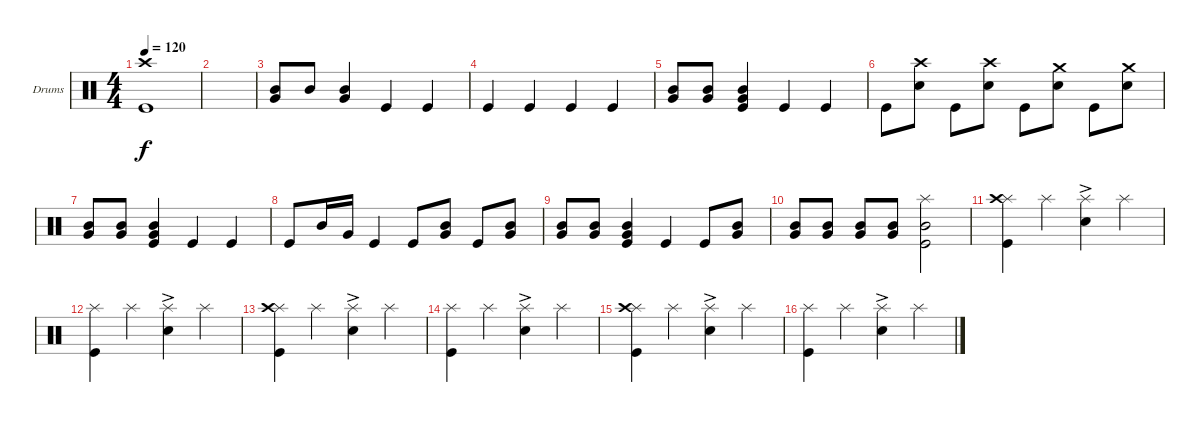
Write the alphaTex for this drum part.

\defaultSystemsLayout 4
\bracketExtendMode groupsimilarinstruments
\firstSystemTrackNameOrientation horizontal
\otherSystemsTrackNameOrientation horizontal
\track ("Drumkit" "Drums") {instrument percussion}
\staff {score}
\articulation defaults
\ts (4 4)
\tempo 120
\clef neutral
\ks c
("Kick (hit)" "Crash high (hit)").1{dy f} |
|
("Very Low Tom (hit)" "Mid Tom (hit)").8 "Mid Tom (hit)".8 ("Very Low Tom (hit)" "Mid Tom (hit)").4 "Kick (hit)".4 "Kick (hit)".4 |
"Kick (hit)".4 "Kick (hit)".4 "Kick (hit)".4 "Kick (hit)".4 |
("Very Low Tom (hit)" "Mid Tom (hit)").8 ("Mid Tom (hit)" "Very Low Tom (hit)").8 ("Very Low Tom (hit)" "Kick (hit)" "Mid Tom (hit)").4 "Kick (hit)".4 "Kick (hit)".4 |
"Kick (hit)".8 ("Snare (hit) 2" "Crash high (hit)").8 "Kick (hit)".8 ("Snare (hit) 2" "Crash high (hit)").8 "Kick (hit)".8 ("Snare (hit) 2" "Crash medium (hit)").8 "Kick (hit)".8 ("Snare (hit) 2" "Crash medium (hit)").8 |
("Very Low Tom (hit)" "Mid Tom (hit)").8 ("Mid Tom (hit)" "Very Low Tom (hit)").8 ("Very Low Tom (hit)" "Kick (hit)" "Mid Tom (hit)").4 "Kick (hit)".4 "Kick (hit)".4 |
"Kick (hit)".8 "Mid Tom (hit)".16 "Very Low Tom (hit)".16 "Kick (hit)".4 "Kick (hit)".8 ("Very Low Tom (hit)" "Mid Tom (hit)").8 "Kick (hit)".8 ("Mid Tom (hit)" "Very Low Tom (hit)").8 |
("Very Low Tom (hit)" "Mid Tom (hit)").8 ("Mid Tom (hit)" "Very Low Tom (hit)").8 ("Very Low Tom (hit)" "Kick (hit)" "Mid Tom (hit)").4 "Kick (hit)".4 "Kick (hit)".8 ("Very Low Tom (hit)" "Mid Tom (hit)").8 |
("Very Low Tom (hit)" "Mid Tom (hit)").8 ("Mid Tom (hit)" "Very Low Tom (hit)").8 ("Very Low Tom (hit)" "Mid Tom (hit)").8 ("Mid Tom (hit)" "Very Low Tom (hit)").8 ("Kick (hit)" "Mid Tom (hit)" "Splash (hit)").2 |
("Kick (hit)" "Splash (hit)" "Crash high (hit)").4 "Splash (hit)".4 ("Snare (hit) 2"{ac} "Splash (hit)").4 "Splash (hit)".4 |
("Kick (hit)" "Splash (hit)").4 "Splash (hit)".4 ("Snare (hit) 2"{ac} "Splash (hit)").4 "Splash (hit)".4 |
("Kick (hit)" "Splash (hit)" "Crash high (hit)").4 "Splash (hit)".4 ("Snare (hit) 2"{ac} "Splash (hit)").4 "Splash (hit)".4 |
("Kick (hit)" "Splash (hit)").4 "Splash (hit)".4 ("Snare (hit) 2"{ac} "Splash (hit)").4 "Splash (hit)".4 |
("Kick (hit)" "Splash (hit)" "Crash high (hit)").4 "Splash (hit)".4 ("Snare (hit) 2"{ac} "Splash (hit)").4 "Splash (hit)".4 |
("Kick (hit)" "Splash (hit)").4 "Splash (hit)".4 ("Snare (hit) 2"{ac} "Splash (hit)").4 "Splash (hit)".4
